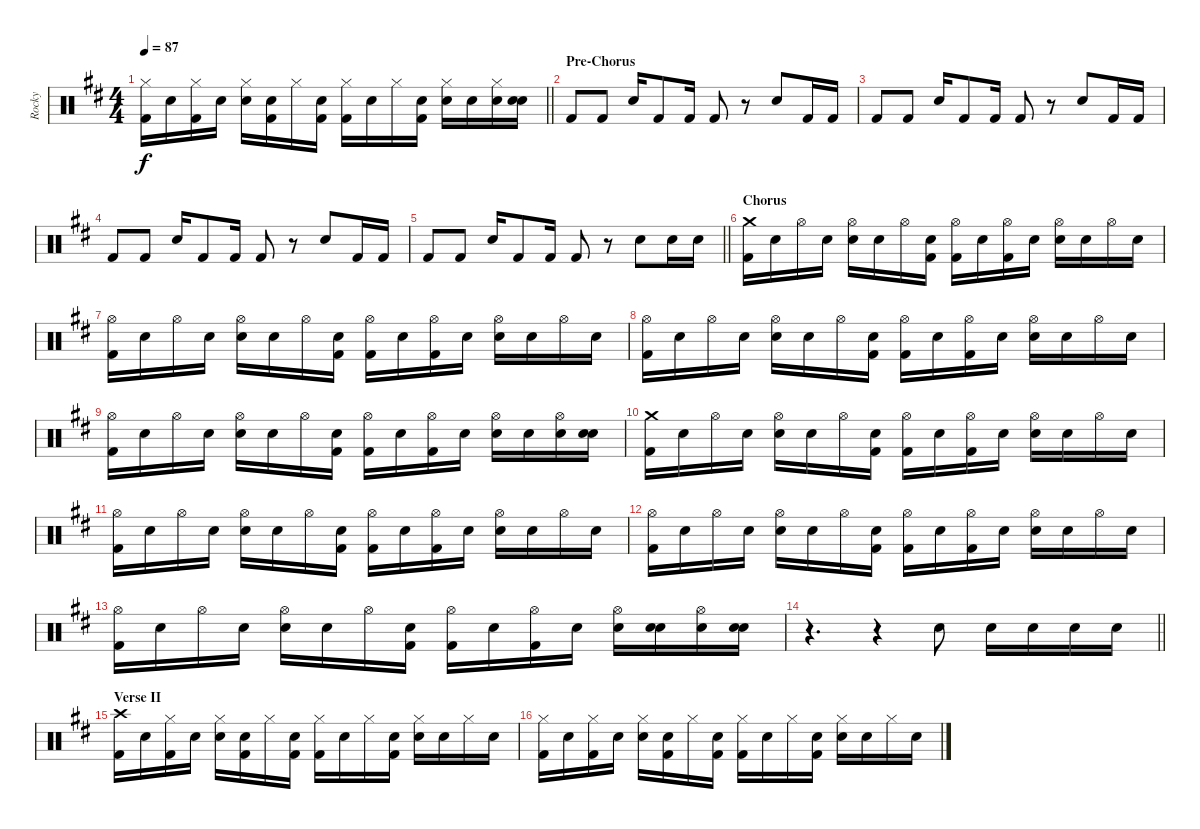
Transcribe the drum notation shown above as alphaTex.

\track ("Rocky" "Rocky") {instrument percussion}
\staff {score}
\articulation defaults
\ts (4 4)
\section ("" "")
\tempo 87
\clef neutral
\barLineRight lightlight
\ks d
("Hi-Hat (closed)" "Kick (hit) 2").16{dy f} "Snare (hit)".16 ("Hi-Hat (closed)" "Kick (hit) 2").16 "Snare (hit)".16 ("Hi-Hat (closed)" "Electric Snare (hit)").16 ("Snare (hit)" "Kick (hit) 2").16 "Hi-Hat (closed)".16 ("Snare (hit)" "Kick (hit) 2").16 ("Hi-Hat (closed)" "Kick (hit) 2").16 "Snare (hit)".16 "Hi-Hat (closed)".16 ("Snare (hit)" "Kick (hit) 2").16 ("Hi-Hat (closed)" "Electric Snare (hit)").16 "Snare (hit)".16 ("Hi-Hat (closed)" "Electric Snare (hit)").16 ("Snare (hit)" "Electric Snare (hit)").16 |
\section ("" "Pre-Chorus")
"Kick (hit) 2".8 "Kick (hit) 2".8 "Snare (hit) 2".16 "Kick (hit) 2".8 "Kick (hit) 2".16 "Kick (hit) 2".8 r.8 "Snare (hit) 2".8 "Kick (hit) 2".16 "Kick (hit) 2".16 |
"Kick (hit) 2".8 "Kick (hit) 2".8 "Snare (hit) 2".16 "Kick (hit) 2".8 "Kick (hit) 2".16 "Kick (hit) 2".8 r.8 "Snare (hit) 2".8 "Kick (hit) 2".16 "Kick (hit) 2".16 |
"Kick (hit) 2".8 "Kick (hit) 2".8 "Snare (hit) 2".16 "Kick (hit) 2".8 "Kick (hit) 2".16 "Kick (hit) 2".8 r.8 "Snare (hit) 2".8 "Kick (hit) 2".16 "Kick (hit) 2".16 |
\barLineRight lightlight "Kick (hit) 2".8 "Kick (hit) 2".8 "Snare (hit) 2".16 "Kick (hit) 2".8 "Kick (hit) 2".16 "Kick (hit) 2".8
r.8 "Snare (hit) 2".8 "Snare (hit) 2".16 "Snare (hit) 2".16 |
\section ("" "Chorus")
("Crash medium (hit)" "Kick (hit) 2").16 "Snare (hit)".16 "Hi-Hat (open)".16 "Snare (hit)".16 ("Hi-Hat (open)" "Electric Snare (hit)").16 "Snare (hit)".16 "Hi-Hat (open)".16 ("Snare (hit)" "Kick (hit) 2").16 ("Hi-Hat (open)" "Kick (hit) 2").16 "Snare (hit)".16 ("Hi-Hat (open)" "Kick (hit) 2").16 "Snare (hit)".16 ("Hi-Hat (open)" "Electric Snare (hit)").16 "Snare (hit)".16 "Hi-Hat (open)".16 "Snare (hit)".16 |
("Hi-Hat (open)" "Kick (hit) 2").16 "Snare (hit)".16 "Hi-Hat (open)".16 "Snare (hit)".16 ("Hi-Hat (open)" "Electric Snare (hit)").16 "Snare (hit)".16 "Hi-Hat (open)".16 ("Snare (hit)" "Kick (hit) 2").16 ("Hi-Hat (open)" "Kick (hit) 2").16 "Snare (hit)".16 ("Hi-Hat (open)" "Kick (hit) 2").16 "Snare (hit)".16 ("Hi-Hat (open)" "Electric Snare (hit)").16 "Snare (hit)".16 "Hi-Hat (open)".16 "Snare (hit)".16 |
("Hi-Hat (open)" "Kick (hit) 2").16 "Snare (hit)".16 "Hi-Hat (open)".16 "Snare (hit)".16 ("Hi-Hat (open)" "Electric Snare (hit)").16 "Snare (hit)".16 "Hi-Hat (open)".16 ("Snare (hit)" "Kick (hit) 2").16 ("Hi-Hat (open)" "Kick (hit) 2").16 "Snare (hit)".16 ("Hi-Hat (open)" "Kick (hit) 2").16 "Snare (hit)".16 ("Hi-Hat (open)" "Electric Snare (hit)").16 "Snare (hit)".16 "Hi-Hat (open)".16 "Snare (hit)".16 |
("Hi-Hat (open)" "Kick (hit) 2").16 "Snare (hit)".16 "Hi-Hat (open)".16 "Snare (hit)".16 ("Hi-Hat (open)" "Electric Snare (hit)").16 "Snare (hit)".16 "Hi-Hat (open)".16 ("Snare (hit)" "Kick (hit) 2").16 ("Hi-Hat (open)" "Kick (hit) 2").16 "Snare (hit)".16 ("Hi-Hat (open)" "Kick (hit) 2").16 "Snare (hit)".16 ("Hi-Hat (open)" "Electric Snare (hit)").16 "Snare (hit)".16 ("Hi-Hat (open)" "Electric Snare (hit)").16 ("Snare (hit)" "Electric Snare (hit)").16 |
("Crash medium (hit)" "Kick (hit) 2").16 "Snare (hit)".16 "Hi-Hat (open)".16 "Snare (hit)".16 ("Hi-Hat (open)" "Electric Snare (hit)").16 "Snare (hit)".16 "Hi-Hat (open)".16 ("Snare (hit)" "Kick (hit) 2").16 ("Hi-Hat (open)" "Kick (hit) 2").16 "Snare (hit)".16 ("Hi-Hat (open)" "Kick (hit) 2").16 "Snare (hit)".16 ("Hi-Hat (open)" "Electric Snare (hit)").16 "Snare (hit)".16 "Hi-Hat (open)".16 "Snare (hit)".16 |
("Hi-Hat (open)" "Kick (hit) 2").16 "Snare (hit)".16 "Hi-Hat (open)".16 "Snare (hit)".16 ("Hi-Hat (open)" "Electric Snare (hit)").16 "Snare (hit)".16 "Hi-Hat (open)".16 ("Snare (hit)" "Kick (hit) 2").16 ("Hi-Hat (open)" "Kick (hit) 2").16 "Snare (hit)".16 ("Hi-Hat (open)" "Kick (hit) 2").16 "Snare (hit)".16 ("Hi-Hat (open)" "Electric Snare (hit)").16 "Snare (hit)".16 "Hi-Hat (open)".16 "Snare (hit)".16 |
("Hi-Hat (open)" "Kick (hit) 2").16 "Snare (hit)".16 "Hi-Hat (open)".16 "Snare (hit)".16 ("Hi-Hat (open)" "Electric Snare (hit)").16 "Snare (hit)".16 "Hi-Hat (open)".16 ("Snare (hit)" "Kick (hit) 2").16 ("Hi-Hat (open)" "Kick (hit) 2").16 "Snare (hit)".16 ("Hi-Hat (open)" "Kick (hit) 2").16 "Snare (hit)".16 ("Hi-Hat (open)" "Electric Snare (hit)").16 "Snare (hit)".16 "Hi-Hat (open)".16 "Snare (hit)".16 |
("Hi-Hat (open)" "Kick (hit) 2").16 "Snare (hit)".16 "Hi-Hat (open)".16 "Snare (hit)".16 ("Hi-Hat (open)" "Electric Snare (hit)").16 "Snare (hit)".16 "Hi-Hat (open)".16 ("Snare (hit)" "Kick (hit) 2").16 ("Hi-Hat (open)" "Kick (hit) 2").16 "Snare (hit)".16 ("Hi-Hat (open)" "Kick (hit) 2").16 "Snare (hit)".16 ("Hi-Hat (open)" "Electric Snare (hit)").16 ("Snare (hit)" "Electric Snare (hit)").16 ("Hi-Hat (open)" "Electric Snare (hit)").16 ("Snare (hit)" "Electric Snare (hit)").16 |
\barLineRight lightlight
r.4{d} r.4 "Electric Snare (hit)".8 "Electric Snare (hit)".16 "Electric Snare (hit)".16 "Electric Snare (hit)".16 "Electric Snare (hit)".16 |
\section ("" "Verse II")
("Crash high (hit)" "Kick (hit) 2").16 "Snare (hit)".16 ("Hi-Hat (closed)" "Kick (hit) 2").16 "Snare (hit)".16 ("Hi-Hat (closed)" "Electric Snare (hit)").16 ("Snare (hit)" "Kick (hit) 2").16 "Hi-Hat (closed)".16 ("Snare (hit)" "Kick (hit) 2").16 ("Hi-Hat (closed)" "Kick (hit) 2").16 "Snare (hit)".16 "Hi-Hat (closed)".16 ("Snare (hit)" "Kick (hit) 2").16 ("Hi-Hat (closed)" "Electric Snare (hit)").16 "Snare (hit)".16 "Hi-Hat (closed)".16 "Snare (hit)".16 |
("Hi-Hat (closed)" "Kick (hit) 2").16 "Snare (hit)".16 ("Hi-Hat (closed)" "Kick (hit) 2").16 "Snare (hit)".16 ("Hi-Hat (closed)" "Electric Snare (hit)").16 ("Snare (hit)" "Kick (hit) 2").16 "Hi-Hat (closed)".16 ("Snare (hit)" "Kick (hit) 2").16 ("Hi-Hat (closed)" "Kick (hit) 2").16 "Snare (hit)".16 "Hi-Hat (closed)".16 ("Snare (hit)" "Kick (hit) 2").16 ("Hi-Hat (closed)" "Electric Snare (hit)").16 "Snare (hit)".16 "Hi-Hat (closed)".16 "Snare (hit)".16
